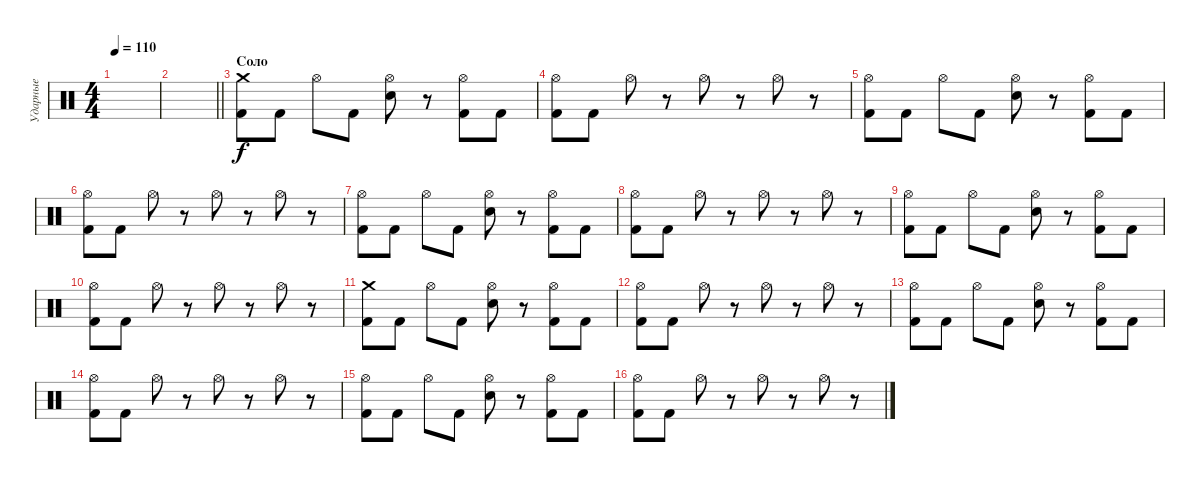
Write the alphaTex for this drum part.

\track ("Ударные" "Ударные") {instrument percussion}
\staff {score}
\articulation defaults
\ts (4 4)
\tempo 110
\clef neutral
\ks c
|
\barLineRight lightlight
|
\section ("" "Соло")
("Crash medium (hit)" "Kick (hit) 2").8 "Kick (hit) 2".8 "Hi-Hat (open)".8 "Kick (hit) 2".8 ("Hi-Hat (open)" "Electric Snare (hit)").8 r.8 ("Hi-Hat (open)" "Kick (hit) 2").8 "Kick (hit) 2".8 |
("Hi-Hat (open)" "Kick (hit) 2").8 "Kick (hit) 2".8 "Hi-Hat (open)".8 r.8 "Hi-Hat (open)".8 r.8 "Hi-Hat (open)".8 r.8 |
("Hi-Hat (open)" "Kick (hit) 2").8 "Kick (hit) 2".8 "Hi-Hat (open)".8 "Kick (hit) 2".8 ("Hi-Hat (open)" "Electric Snare (hit)").8 r.8 ("Hi-Hat (open)" "Kick (hit) 2").8 "Kick (hit) 2".8 |
("Hi-Hat (open)" "Kick (hit) 2").8 "Kick (hit) 2".8 "Hi-Hat (open)".8 r.8 "Hi-Hat (open)".8 r.8 "Hi-Hat (open)".8 r.8 |
("Hi-Hat (open)" "Kick (hit) 2").8 "Kick (hit) 2".8 "Hi-Hat (open)".8 "Kick (hit) 2".8 ("Hi-Hat (open)" "Electric Snare (hit)").8 r.8 ("Hi-Hat (open)" "Kick (hit) 2").8 "Kick (hit) 2".8 |
("Hi-Hat (open)" "Kick (hit) 2").8 "Kick (hit) 2".8 "Hi-Hat (open)".8 r.8 "Hi-Hat (open)".8 r.8 "Hi-Hat (open)".8 r.8 |
("Hi-Hat (open)" "Kick (hit) 2").8 "Kick (hit) 2".8 "Hi-Hat (open)".8 "Kick (hit) 2".8 ("Hi-Hat (open)" "Electric Snare (hit)").8 r.8 ("Hi-Hat (open)" "Kick (hit) 2").8 "Kick (hit) 2".8 |
("Hi-Hat (open)" "Kick (hit) 2").8 "Kick (hit) 2".8 "Hi-Hat (open)".8 r.8 "Hi-Hat (open)".8 r.8 "Hi-Hat (open)".8 r.8 |
("Crash medium (hit)" "Kick (hit) 2").8 "Kick (hit) 2".8 "Hi-Hat (open)".8 "Kick (hit) 2".8 ("Hi-Hat (open)" "Electric Snare (hit)").8 r.8 ("Hi-Hat (open)" "Kick (hit) 2").8 "Kick (hit) 2".8 |
("Hi-Hat (open)" "Kick (hit) 2").8 "Kick (hit) 2".8 "Hi-Hat (open)".8 r.8 "Hi-Hat (open)".8 r.8 "Hi-Hat (open)".8 r.8 |
("Hi-Hat (open)" "Kick (hit) 2").8 "Kick (hit) 2".8 "Hi-Hat (open)".8 "Kick (hit) 2".8 ("Hi-Hat (open)" "Electric Snare (hit)").8 r.8 ("Hi-Hat (open)" "Kick (hit) 2").8 "Kick (hit) 2".8 |
("Hi-Hat (open)" "Kick (hit) 2").8 "Kick (hit) 2".8 "Hi-Hat (open)".8 r.8 "Hi-Hat (open)".8 r.8 "Hi-Hat (open)".8 r.8 |
("Hi-Hat (open)" "Kick (hit) 2").8 "Kick (hit) 2".8 "Hi-Hat (open)".8 "Kick (hit) 2".8 ("Hi-Hat (open)" "Electric Snare (hit)").8 r.8 ("Hi-Hat (open)" "Kick (hit) 2").8 "Kick (hit) 2".8 |
("Hi-Hat (open)" "Kick (hit) 2").8 "Kick (hit) 2".8 "Hi-Hat (open)".8 r.8 "Hi-Hat (open)".8 r.8 "Hi-Hat (open)".8 r.8
